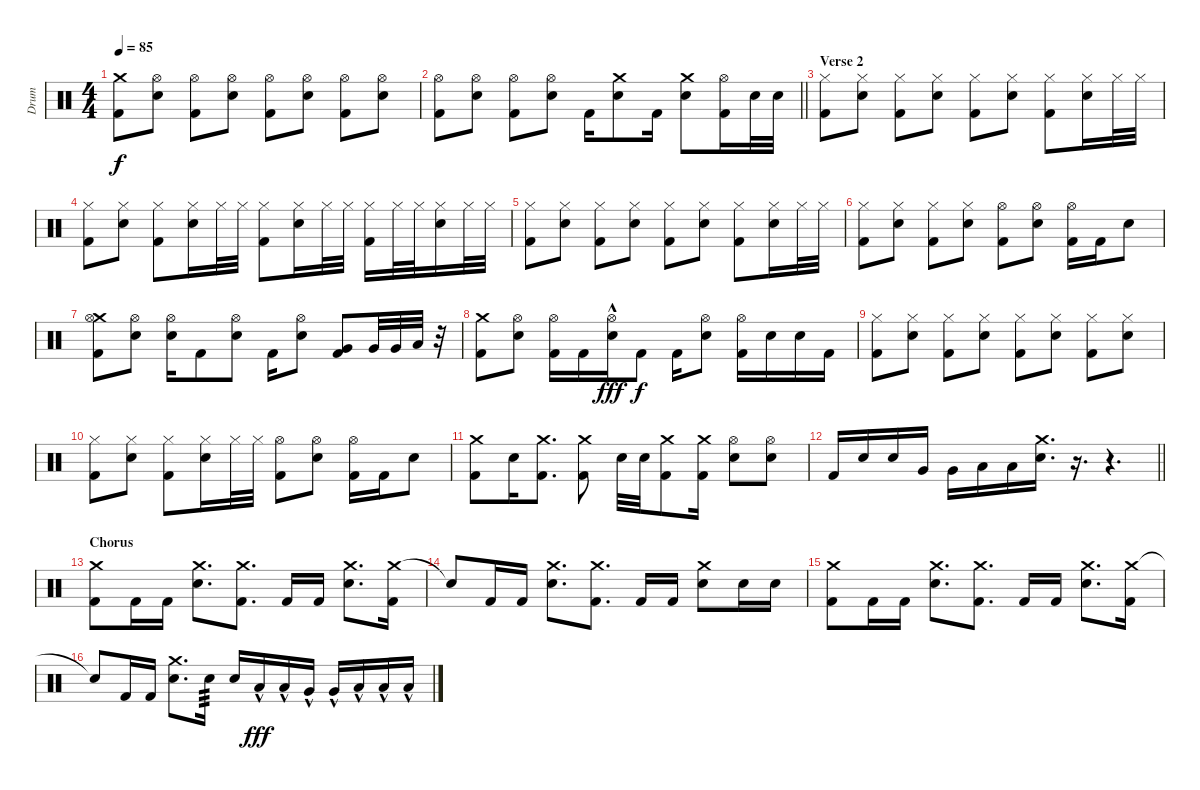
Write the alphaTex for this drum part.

\track ("Drum" "Drum") {instrument percussion}
\staff {score}
\articulation defaults
\ts (4 4)
\tempo 85
\clef neutral
\ks c
("Crash medium (hit)" "Kick (hit) 2").8{dy f} ("Hi-Hat (open)" "Electric Snare (hit)").8 ("Hi-Hat (open)" "Kick (hit) 2").8 ("Hi-Hat (open)" "Electric Snare (hit)").8 ("Hi-Hat (open)" "Kick (hit) 2").8 ("Hi-Hat (open)" "Electric Snare (hit)").8 ("Hi-Hat (open)" "Kick (hit) 2").8 ("Hi-Hat (open)" "Electric Snare (hit)").8 |
\barLineRight lightlight
("Hi-Hat (open)" "Kick (hit) 2").8 ("Hi-Hat (open)" "Electric Snare (hit)").8 ("Hi-Hat (open)" "Kick (hit) 2").8 ("Hi-Hat (open)" "Electric Snare (hit)").8 "Kick (hit) 2".16 ("Crash medium (hit)" "Electric Snare (hit)").8 "Kick (hit) 2".16 ("Crash medium (hit)" "Electric Snare (hit)").8 ("Hi-Hat (open)" "Kick (hit) 2").16 "Electric Snare (hit)".32 "Electric Snare (hit)".32 |
\section ("" "Verse 2")
("Hi-Hat (closed)" "Kick (hit) 2").8 ("Hi-Hat (closed)" "Electric Snare (hit)").8 ("Hi-Hat (closed)" "Kick (hit) 2").8 ("Hi-Hat (closed)" "Electric Snare (hit)").8 ("Hi-Hat (closed)" "Kick (hit) 2").8 ("Hi-Hat (closed)" "Electric Snare (hit)").8 ("Hi-Hat (closed)" "Kick (hit) 2").8 ("Hi-Hat (closed)" "Electric Snare (hit)").16 "Hi-Hat (closed)".32 "Hi-Hat (closed)".32 |
("Hi-Hat (closed)" "Kick (hit) 2").8 ("Hi-Hat (closed)" "Electric Snare (hit)").8 ("Hi-Hat (closed)" "Kick (hit) 2").8 ("Hi-Hat (closed)" "Electric Snare (hit)").16 "Hi-Hat (closed)".32 "Hi-Hat (closed)".32 ("Hi-Hat (closed)" "Kick (hit) 2").8 ("Hi-Hat (closed)" "Electric Snare (hit)").16 "Hi-Hat (closed)".32 "Hi-Hat (closed)".32 ("Hi-Hat (closed)" "Kick (hit) 2").16 "Hi-Hat (closed)".32 "Hi-Hat (closed)".32 ("Hi-Hat (closed)" "Electric Snare (hit)").16 "Hi-Hat (closed)".32 "Hi-Hat (closed)".32 |
("Hi-Hat (closed)" "Kick (hit) 2").8 ("Hi-Hat (closed)" "Electric Snare (hit)").8 ("Hi-Hat (closed)" "Kick (hit) 2").8 ("Hi-Hat (closed)" "Electric Snare (hit)").8 ("Hi-Hat (closed)" "Kick (hit) 2").8 ("Hi-Hat (closed)" "Electric Snare (hit)").8 ("Hi-Hat (closed)" "Kick (hit) 2").8 ("Hi-Hat (closed)" "Electric Snare (hit)").16 "Hi-Hat (closed)".32 "Hi-Hat (closed)".32 |
("Hi-Hat (closed)" "Kick (hit) 2").8 ("Hi-Hat (closed)" "Electric Snare (hit)").8 ("Hi-Hat (closed)" "Kick (hit) 2").8 ("Hi-Hat (closed)" "Electric Snare (hit)").8 ("Hi-Hat (open)" "Kick (hit) 2").8 ("Hi-Hat (open)" "Electric Snare (hit)").8 ("Hi-Hat (open)" "Kick (hit) 2").16 "Kick (hit) 2".16 "Electric Snare (hit)".8 |
("Crash medium (hit)" "Hi-Hat (open)" "Kick (hit) 2").8 ("Hi-Hat (open)" "Electric Snare (hit)").8 ("Hi-Hat (open)" "Electric Snare (hit)").16 "Kick (hit) 2".8 ("Hi-Hat (open)" "Electric Snare (hit)").8 "Kick (hit) 2".16 ("Hi-Hat (open)" "Electric Snare (hit)").8 ("Very Low Tom (hit)" "Kick (hit) 2").8 "Very Low Tom (hit)".32 "Very Low Tom (hit)".32 "Low Floor Tom (hit)".32 r.32 |
("Crash medium (hit)" "Kick (hit) 2").8 ("Hi-Hat (open)" "Electric Snare (hit)").8 ("Hi-Hat (open)" "Kick (hit) 2").16 "Kick (hit) 2".16 ("Hi-Hat (open)"{hac} "Electric Snare (hit)").16{dy fff} "Kick (hit) 2".8{dy f} "Kick (hit) 2".16 ("Hi-Hat (open)" "Electric Snare (hit)").8 ("Hi-Hat (open)" "Kick (hit) 2").16 "Electric Snare (hit)".16 "Electric Snare (hit)".16 "Kick (hit) 2".16 |
("Hi-Hat (closed)" "Kick (hit) 2").8 ("Hi-Hat (closed)" "Electric Snare (hit)").8 ("Hi-Hat (closed)" "Kick (hit) 2").8 ("Hi-Hat (closed)" "Electric Snare (hit)").8 ("Hi-Hat (closed)" "Kick (hit) 2").8 ("Hi-Hat (closed)" "Electric Snare (hit)").8 ("Hi-Hat (closed)" "Kick (hit) 2").8 ("Hi-Hat (closed)" "Electric Snare (hit)").8 |
("Hi-Hat (closed)" "Kick (hit) 2").8 ("Hi-Hat (closed)" "Electric Snare (hit)").8 ("Hi-Hat (closed)" "Kick (hit) 2").8 ("Hi-Hat (closed)" "Electric Snare (hit)").16 "Hi-Hat (closed)".32 "Hi-Hat (closed)".32 ("Hi-Hat (open)" "Kick (hit) 2").8 ("Hi-Hat (open)" "Electric Snare (hit)").8 ("Hi-Hat (open)" "Kick (hit) 2").16 "Kick (hit) 2".16 "Electric Snare (hit)".8 |
("Crash medium (hit)" "Kick (hit) 2").8 "Electric Snare (hit)".16 ("Crash medium (hit)" "Kick (hit) 2").8{d} ("Crash medium (hit)" "Kick (hit) 2").8 "Electric Snare (hit)".32 "Electric Snare (hit)".32 ("Crash medium (hit)" "Kick (hit) 2").8 ("Crash medium (hit)" "Kick (hit) 2").16 ("Hi-Hat (open)" "Electric Snare (hit)").8 ("Hi-Hat (open)" "Electric Snare (hit)").8 |
\barLineRight lightlight "Kick (hit) 2".16 "Electric Snare (hit)".16 "Electric Snare (hit)".16 "Very Low Tom (hit)".16 "Very Low Tom (hit)".16 "Low Tom (hit)".16 "Low Tom (hit)".16
("Crash medium (hit)" "Electric Snare (hit)").16{d} r.16{d volume 0} r.4{d} |
\section ("" "Chorus")
("Crash medium (hit)" "Kick (hit) 2").8{volume 14} "Kick (hit) 2".16 "Kick (hit) 2".16 ("Crash medium (hit)" "Electric Snare (hit)").8{d} ("Crash medium (hit)" "Kick (hit) 2").8{d} "Kick (hit) 2".16 "Kick (hit) 2".16 ("Crash medium (hit)" "Electric Snare (hit)").8{d} ("Crash medium (hit)" "Kick (hit) 2").16 |
"Snare (hit)"{t}.8 "Kick (hit) 2".16 "Kick (hit) 2".16 ("Crash medium (hit)" "Electric Snare (hit)").8{d} ("Crash medium (hit)" "Kick (hit) 2").8{d} "Kick (hit) 2".16 "Kick (hit) 2".16 ("Crash medium (hit)" "Electric Snare (hit)").8 "Electric Snare (hit)".16 "Electric Snare (hit)".16 |
("Crash medium (hit)" "Kick (hit) 2").8 "Kick (hit) 2".16 "Kick (hit) 2".16 ("Crash medium (hit)" "Electric Snare (hit)").8{d} ("Crash medium (hit)" "Kick (hit) 2").8{d} "Kick (hit) 2".16 "Kick (hit) 2".16 ("Crash medium (hit)" "Electric Snare (hit)").8{d} ("Crash medium (hit)" "Kick (hit) 2").16 |
"Snare (hit)"{t}.8 "Kick (hit) 2".16 "Kick (hit) 2".16 ("Crash medium (hit)" "Electric Snare (hit)").8{d} "Electric Snare (hit)".16{tp 3} "Electric Snare (hit)".16 "Low Tom (hit)"{hac}.16{dy fff} "Low Tom (hit)"{hac}.16 "Very Low Tom (hit)"{hac}.16 "Very Low Tom (hit)"{hac}.16 "Low Floor Tom (hit)"{hac}.16 "Low Floor Tom (hit)"{hac}.16 "Low Floor Tom (hit)"{hac}.16
